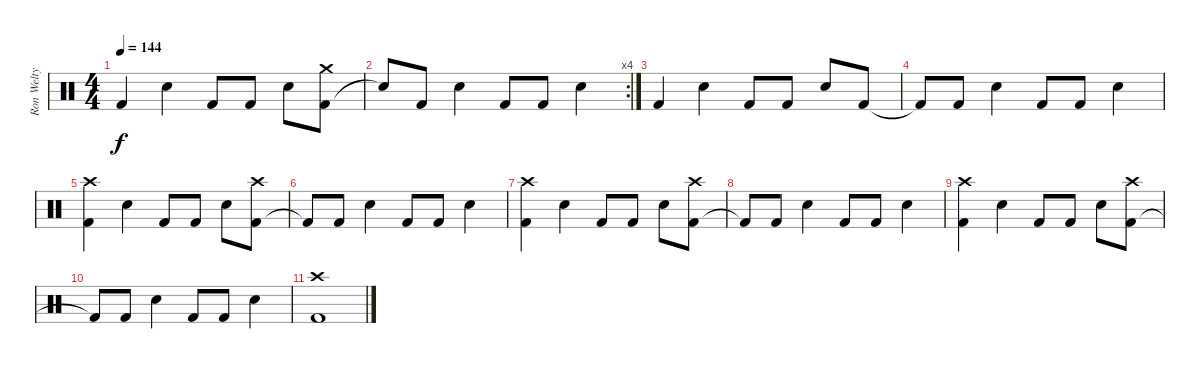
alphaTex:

\track ("Ron Welty" "Ron Welty") {instrument percussion}
\staff {score}
\articulation defaults
\ts (4 4)
\tempo 144
\clef neutral
\ks c "Kick (hit) 2".4{dy f} "Snare (hit) 2".4 "Kick (hit) 2".8 "Kick (hit) 2".8 "Snare (hit) 2".8
("Kick (hit) 2" "Crash medium (hit)").8 |
\rc 4 "Snare (hit)"{t}.8 "Kick (hit) 2".8 "Snare (hit) 2".4 "Kick (hit) 2".8 "Kick (hit) 2".8 "Snare (hit) 2".4
|
"Kick (hit) 2".4 "Snare (hit) 2".4 "Kick (hit) 2".8 "Kick (hit) 2".8 "Snare (hit) 2".8 "Kick (hit) 2".8 |
"Kick (hit) 2"{t}.8 "Kick (hit) 2".8 "Snare (hit) 2".4 "Kick (hit) 2".8 "Kick (hit) 2".8 "Snare (hit) 2".4 |
("Kick (hit) 2" "Crash high (hit)").4 "Snare (hit) 2".4 "Kick (hit) 2".8 "Kick (hit) 2".8 "Snare (hit) 2".8 ("Kick (hit) 2" "Crash high (hit)").8 |
"Kick (hit) 2"{t}.8 "Kick (hit) 2".8 "Snare (hit) 2".4 "Kick (hit) 2".8 "Kick (hit) 2".8 "Snare (hit) 2".4 |
("Kick (hit) 2" "Crash high (hit)").4 "Snare (hit) 2".4 "Kick (hit) 2".8 "Kick (hit) 2".8 "Snare (hit) 2".8 ("Kick (hit) 2" "Crash high (hit)").8 |
"Kick (hit) 2"{t}.8 "Kick (hit) 2".8 "Snare (hit) 2".4 "Kick (hit) 2".8 "Kick (hit) 2".8 "Snare (hit) 2".4 |
("Kick (hit) 2" "Crash high (hit)").4 "Snare (hit) 2".4 "Kick (hit) 2".8 "Kick (hit) 2".8 "Snare (hit) 2".8 ("Kick (hit) 2" "Crash high (hit)").8 |
"Kick (hit) 2"{t}.8 "Kick (hit) 2".8 "Snare (hit) 2".4 "Kick (hit) 2".8 "Kick (hit) 2".8 "Snare (hit) 2".4 |
("Kick (hit) 2" "Crash high (hit)").1
